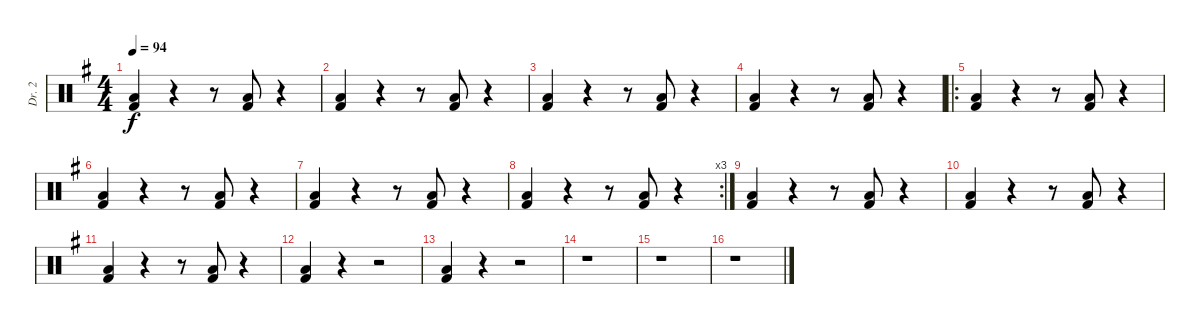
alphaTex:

\track ("Dr. 2" "Dr. 2") {instrument percussion}
\staff {score}
\articulation defaults
\ts (4 4)
\tempo 94
\clef neutral
\ks g
("Low Floor Tom (hit)" "Kick (hit) 2").4{dy f} r.4 r.8 ("Low Floor Tom (hit)" "Kick (hit) 2").8 r.4 |
("Low Floor Tom (hit)" "Kick (hit) 2").4 r.4 r.8 ("Low Floor Tom (hit)" "Kick (hit) 2").8 r.4 |
("Low Floor Tom (hit)" "Kick (hit) 2").4 r.4 r.8 ("Low Floor Tom (hit)" "Kick (hit) 2").8 r.4 |
("Low Floor Tom (hit)" "Kick (hit) 2").4 r.4 r.8 ("Low Floor Tom (hit)" "Kick (hit) 2").8 r.4 |
\ro
("Low Floor Tom (hit)" "Kick (hit) 2").4 r.4 r.8 ("Low Floor Tom (hit)" "Kick (hit) 2").8 r.4 |
("Low Floor Tom (hit)" "Kick (hit) 2").4 r.4 r.8 ("Low Floor Tom (hit)" "Kick (hit) 2").8 r.4 |
("Low Floor Tom (hit)" "Kick (hit) 2").4 r.4 r.8 ("Low Floor Tom (hit)" "Kick (hit) 2").8 r.4 |
\rc 3
("Low Floor Tom (hit)" "Kick (hit) 2").4 r.4 r.8 ("Low Floor Tom (hit)" "Kick (hit) 2").8 r.4 |
("Low Floor Tom (hit)" "Kick (hit) 2").4 r.4 r.8 ("Low Floor Tom (hit)" "Kick (hit) 2").8 r.4 |
("Low Floor Tom (hit)" "Kick (hit) 2").4 r.4 r.8 ("Low Floor Tom (hit)" "Kick (hit) 2").8 r.4 |
("Low Floor Tom (hit)" "Kick (hit) 2").4 r.4 r.8 ("Low Floor Tom (hit)" "Kick (hit) 2").8 r.4 |
("Low Floor Tom (hit)" "Kick (hit) 2").4 r.4 r.2 |
("Low Floor Tom (hit)" "Kick (hit) 2").4 r.4 r.2 |
r.1 |
r.1 |
r.1
